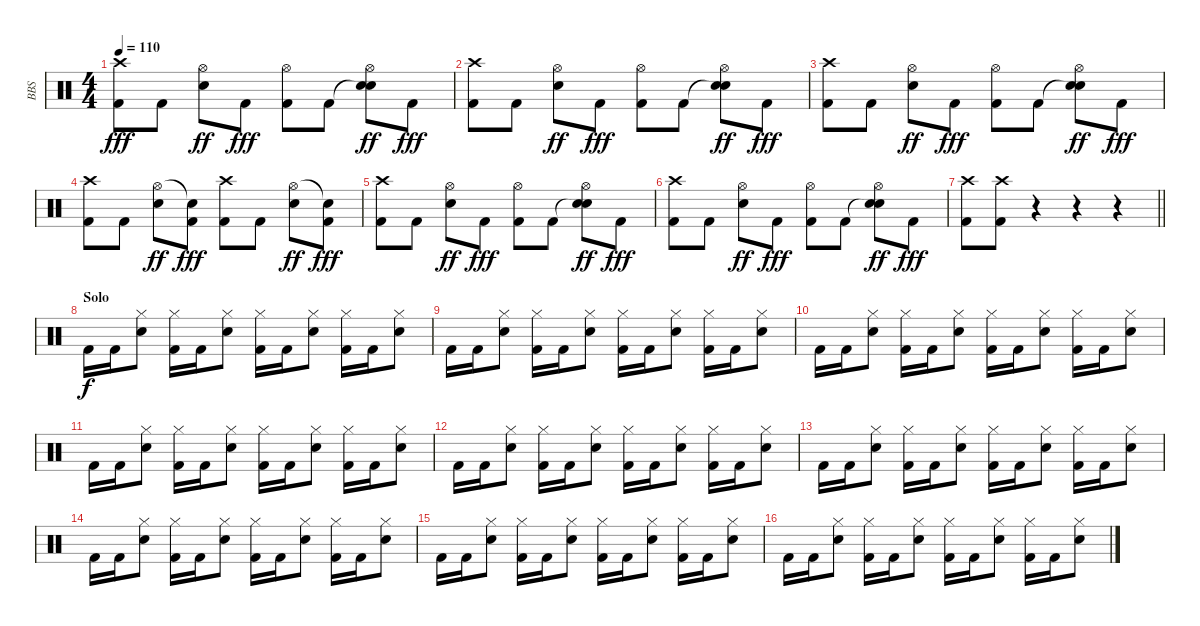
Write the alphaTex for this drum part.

\track ("BBS" "BBS") {instrument percussion}
\staff {score}
\articulation defaults
\ts (4 4)
\tempo 110
\clef neutral
\ks c
("Crash high (hit)" "Kick (hit) 2").8{dy fff} "Kick (hit) 2".8 ("Hi-Hat (open)" "Electric Snare (hit)").8{dy ff} "Kick (hit) 2".8{dy fff} ("Hi-Hat (open)" "Kick (hit) 2").8 "Kick (hit) 2".8 ("Snare (hit)"{t} "Hi-Hat (open)" "Electric Snare (hit)").8{dy ff} "Kick (hit) 2".8{dy fff} |
("Crash high (hit)" "Kick (hit) 2").8 "Kick (hit) 2".8 ("Hi-Hat (open)" "Electric Snare (hit)").8{dy ff} "Kick (hit) 2".8{dy fff} ("Hi-Hat (open)" "Kick (hit) 2").8 "Kick (hit) 2".8 ("Snare (hit)"{t} "Hi-Hat (open)" "Electric Snare (hit)").8{dy ff} "Kick (hit) 2".8{dy fff} |
("Crash high (hit)" "Kick (hit) 2").8 "Kick (hit) 2".8 ("Hi-Hat (open)" "Electric Snare (hit)").8{dy ff} "Kick (hit) 2".8{dy fff} ("Hi-Hat (open)" "Kick (hit) 2").8 "Kick (hit) 2".8 ("Snare (hit)"{t} "Hi-Hat (open)" "Electric Snare (hit)").8{dy ff} "Kick (hit) 2".8{dy fff} |
("Crash high (hit)" "Kick (hit) 2").8 "Kick (hit) 2".8 ("Hi-Hat (open)" "Electric Snare (hit)").8{dy ff} ("Snare (hit)"{t} "Kick (hit) 2").8{dy fff} ("Crash high (hit)" "Kick (hit) 2").8 "Kick (hit) 2".8 ("Hi-Hat (open)" "Electric Snare (hit)").8{dy ff} ("Snare (hit)"{t} "Kick (hit) 2").8{dy fff} |
("Crash high (hit)" "Kick (hit) 2").8 "Kick (hit) 2".8 ("Hi-Hat (open)" "Electric Snare (hit)").8{dy ff} "Kick (hit) 2".8{dy fff} ("Hi-Hat (open)" "Kick (hit) 2").8 "Kick (hit) 2".8 ("Snare (hit)"{t} "Hi-Hat (open)" "Electric Snare (hit)").8{dy ff} "Kick (hit) 2".8{dy fff} |
("Crash high (hit)" "Kick (hit) 2").8 "Kick (hit) 2".8 ("Hi-Hat (open)" "Electric Snare (hit)").8{dy ff} "Kick (hit) 2".8{dy fff} ("Hi-Hat (open)" "Kick (hit) 2").8 "Kick (hit) 2".8 ("Snare (hit)"{t} "Hi-Hat (open)" "Electric Snare (hit)").8{dy ff} "Kick (hit) 2".8{dy fff} |
\barLineRight lightlight
("Crash high (hit)" "Kick (hit) 2").8 ("Crash high (hit)" "Kick (hit) 2").8 r.4 r.4 r.4 |
\section ("" "Solo")
"Kick (hit) 2".16{dy f} "Kick (hit) 2".16 ("Hi-Hat (closed)" "Snare (hit) 2").8 ("Hi-Hat (closed)" "Kick (hit) 2").16 "Kick (hit) 2".16 ("Hi-Hat (closed)" "Snare (hit) 2").8 ("Hi-Hat (closed)" "Kick (hit) 2").16 "Kick (hit) 2".16 ("Hi-Hat (closed)" "Snare (hit) 2").8 ("Hi-Hat (closed)" "Kick (hit) 2").16 "Kick (hit) 2".16 ("Hi-Hat (closed)" "Snare (hit) 2").8 |
"Kick (hit) 2".16 "Kick (hit) 2".16 ("Hi-Hat (closed)" "Snare (hit) 2").8 ("Hi-Hat (closed)" "Kick (hit) 2").16 "Kick (hit) 2".16 ("Hi-Hat (closed)" "Snare (hit) 2").8 ("Hi-Hat (closed)" "Kick (hit) 2").16 "Kick (hit) 2".16 ("Hi-Hat (closed)" "Snare (hit) 2").8 ("Hi-Hat (closed)" "Kick (hit) 2").16 "Kick (hit) 2".16 ("Hi-Hat (closed)" "Snare (hit) 2").8 |
"Kick (hit) 2".16 "Kick (hit) 2".16 ("Hi-Hat (closed)" "Snare (hit) 2").8 ("Hi-Hat (closed)" "Kick (hit) 2").16 "Kick (hit) 2".16 ("Hi-Hat (closed)" "Snare (hit) 2").8 ("Hi-Hat (closed)" "Kick (hit) 2").16 "Kick (hit) 2".16 ("Hi-Hat (closed)" "Snare (hit) 2").8 ("Hi-Hat (closed)" "Kick (hit) 2").16 "Kick (hit) 2".16 ("Hi-Hat (closed)" "Snare (hit) 2").8 |
"Kick (hit) 2".16 "Kick (hit) 2".16 ("Hi-Hat (closed)" "Snare (hit) 2").8 ("Hi-Hat (closed)" "Kick (hit) 2").16 "Kick (hit) 2".16 ("Hi-Hat (closed)" "Snare (hit) 2").8 ("Hi-Hat (closed)" "Kick (hit) 2").16 "Kick (hit) 2".16 ("Hi-Hat (closed)" "Snare (hit) 2").8 ("Hi-Hat (closed)" "Kick (hit) 2").16 "Kick (hit) 2".16 ("Hi-Hat (closed)" "Snare (hit) 2").8 |
"Kick (hit) 2".16 "Kick (hit) 2".16 ("Hi-Hat (closed)" "Snare (hit) 2").8 ("Hi-Hat (closed)" "Kick (hit) 2").16 "Kick (hit) 2".16 ("Hi-Hat (closed)" "Snare (hit) 2").8 ("Hi-Hat (closed)" "Kick (hit) 2").16 "Kick (hit) 2".16 ("Hi-Hat (closed)" "Snare (hit) 2").8 ("Hi-Hat (closed)" "Kick (hit) 2").16 "Kick (hit) 2".16 ("Hi-Hat (closed)" "Snare (hit) 2").8 |
"Kick (hit) 2".16 "Kick (hit) 2".16 ("Hi-Hat (closed)" "Snare (hit) 2").8 ("Hi-Hat (closed)" "Kick (hit) 2").16 "Kick (hit) 2".16 ("Hi-Hat (closed)" "Snare (hit) 2").8 ("Hi-Hat (closed)" "Kick (hit) 2").16 "Kick (hit) 2".16 ("Hi-Hat (closed)" "Snare (hit) 2").8 ("Hi-Hat (closed)" "Kick (hit) 2").16 "Kick (hit) 2".16 ("Hi-Hat (closed)" "Snare (hit) 2").8 |
"Kick (hit) 2".16 "Kick (hit) 2".16 ("Hi-Hat (closed)" "Snare (hit) 2").8 ("Hi-Hat (closed)" "Kick (hit) 2").16 "Kick (hit) 2".16 ("Hi-Hat (closed)" "Snare (hit) 2").8 ("Hi-Hat (closed)" "Kick (hit) 2").16 "Kick (hit) 2".16 ("Hi-Hat (closed)" "Snare (hit) 2").8 ("Hi-Hat (closed)" "Kick (hit) 2").16 "Kick (hit) 2".16 ("Hi-Hat (closed)" "Snare (hit) 2").8 |
"Kick (hit) 2".16 "Kick (hit) 2".16 ("Hi-Hat (closed)" "Snare (hit) 2").8 ("Hi-Hat (closed)" "Kick (hit) 2").16 "Kick (hit) 2".16 ("Hi-Hat (closed)" "Snare (hit) 2").8 ("Hi-Hat (closed)" "Kick (hit) 2").16 "Kick (hit) 2".16 ("Hi-Hat (closed)" "Snare (hit) 2").8 ("Hi-Hat (closed)" "Kick (hit) 2").16 "Kick (hit) 2".16 ("Hi-Hat (closed)" "Snare (hit) 2").8 |
"Kick (hit) 2".16 "Kick (hit) 2".16 ("Hi-Hat (closed)" "Snare (hit) 2").8 ("Hi-Hat (closed)" "Kick (hit) 2").16 "Kick (hit) 2".16 ("Hi-Hat (closed)" "Snare (hit) 2").8 ("Hi-Hat (closed)" "Kick (hit) 2").16 "Kick (hit) 2".16 ("Hi-Hat (closed)" "Snare (hit) 2").8 ("Hi-Hat (closed)" "Kick (hit) 2").16 "Kick (hit) 2".16 ("Hi-Hat (closed)" "Snare (hit) 2").8
